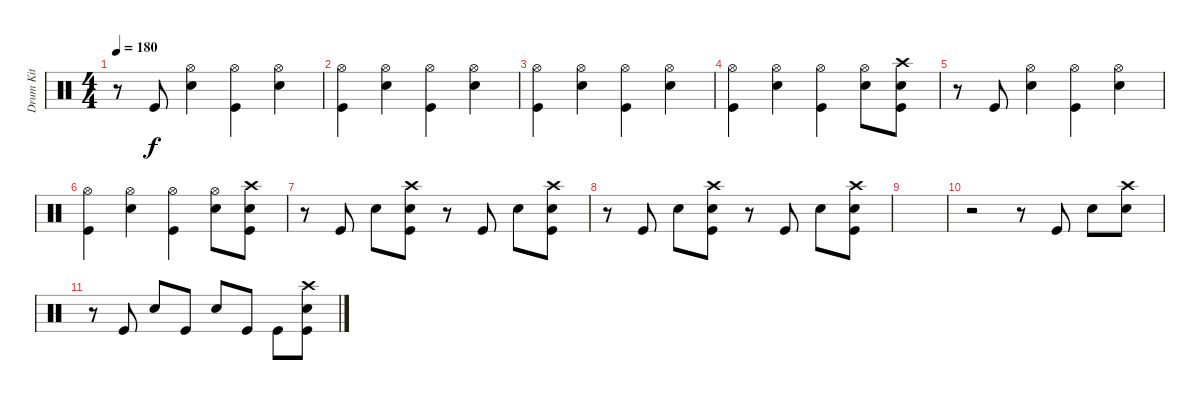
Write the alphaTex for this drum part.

\track ("Drum Kit" "Drum Kit") {instrument percussion}
\staff {score}
\articulation defaults
\ts (4 4)
\tempo 180
\clef neutral
\ks c
r.8{dy f} "Kick (hit)".8 ("Snare (hit) 2" "Hi-Hat (open)").4 ("Kick (hit)" "Hi-Hat (open)").4 ("Snare (hit) 2" "Hi-Hat (open)").4 |
("Kick (hit)" "Hi-Hat (open)").4 ("Snare (hit) 2" "Hi-Hat (open)").4 ("Kick (hit)" "Hi-Hat (open)").4 ("Snare (hit) 2" "Hi-Hat (open)").4 |
("Kick (hit)" "Hi-Hat (open)").4 ("Snare (hit) 2" "Hi-Hat (open)").4 ("Kick (hit)" "Hi-Hat (open)").4 ("Snare (hit) 2" "Hi-Hat (open)").4 |
("Kick (hit)" "Hi-Hat (open)").4 ("Snare (hit) 2" "Hi-Hat (open)").4 ("Kick (hit)" "Hi-Hat (open)").4 ("Snare (hit) 2" "Hi-Hat (open)").8 ("Snare (hit) 2" "Crash high (hit)" "Kick (hit)").8 |
r.8 "Kick (hit)".8 ("Snare (hit) 2" "Hi-Hat (open)").4 ("Kick (hit)" "Hi-Hat (open)").4 ("Snare (hit) 2" "Hi-Hat (open)").4 |
("Kick (hit)" "Hi-Hat (open)").4 ("Snare (hit) 2" "Hi-Hat (open)").4 ("Kick (hit)" "Hi-Hat (open)").4 ("Snare (hit) 2" "Hi-Hat (open)").8 ("Snare (hit) 2" "Crash high (hit)" "Kick (hit)").8 |
r.8 "Kick (hit)".8 "Snare (hit) 2".8 ("Snare (hit) 2" "Crash high (hit)" "Kick (hit)").8 r.8 "Kick (hit)".8 "Snare (hit) 2".8 ("Snare (hit) 2" "Crash high (hit)" "Kick (hit)").8 |
r.8 "Kick (hit)".8 "Snare (hit) 2".8 ("Snare (hit) 2" "Crash high (hit)" "Kick (hit)").8 r.8 "Kick (hit)".8 "Snare (hit) 2".8 ("Snare (hit) 2" "Crash high (hit)" "Kick (hit)").8 |
|
r.2 r.8 "Kick (hit)".8 "Snare (hit) 2".8 ("Snare (hit) 2" "Crash high (hit)").8 |
r.8 "Kick (hit)".8 "Snare (hit) 2".8 "Kick (hit)".8 "Snare (hit) 2".8 "Kick (hit)".8 "Kick (hit)".8 ("Kick (hit)" "Snare (hit) 2" "Crash high (hit)").8
